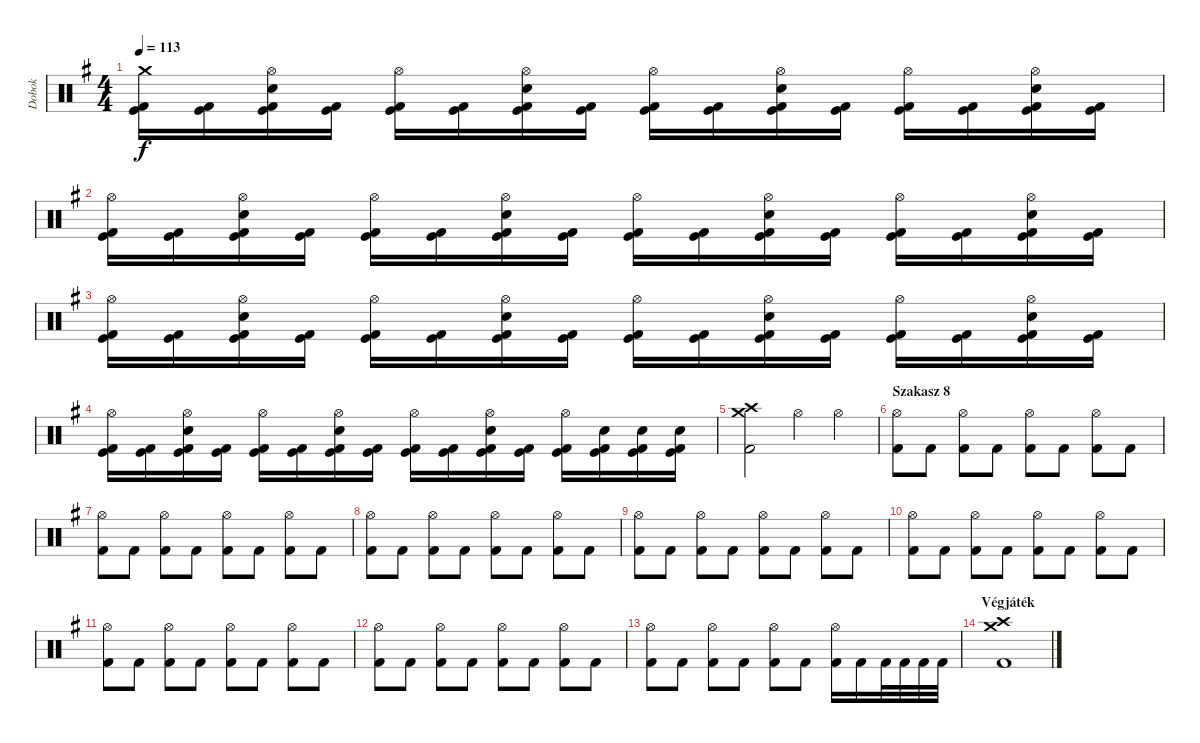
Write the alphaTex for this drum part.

\track ("Dobok" "Dobok") {instrument percussion}
\staff {score}
\articulation defaults
\ts (4 4)
\tempo 113
\clef neutral
\ks g
("Crash medium (hit)" "Kick (hit) 2" "Kick (hit)").16{dy f} ("Kick (hit) 2" "Kick (hit)").16 ("Hi-Hat (open)" "Snare (hit) 2" "Kick (hit) 2" "Kick (hit)").16 ("Kick (hit) 2" "Kick (hit)").16 ("Hi-Hat (open)" "Kick (hit) 2" "Kick (hit)").16 ("Kick (hit) 2" "Kick (hit)").16 ("Hi-Hat (open)" "Snare (hit) 2" "Kick (hit) 2" "Kick (hit)").16 ("Kick (hit) 2" "Kick (hit)").16 ("Hi-Hat (open)" "Kick (hit) 2" "Kick (hit)").16 ("Kick (hit) 2" "Kick (hit)").16 ("Hi-Hat (open)" "Snare (hit) 2" "Kick (hit) 2" "Kick (hit)").16 ("Kick (hit) 2" "Kick (hit)").16 ("Hi-Hat (open)" "Kick (hit) 2" "Kick (hit)").16 ("Kick (hit) 2" "Kick (hit)").16 ("Hi-Hat (open)" "Snare (hit) 2" "Kick (hit) 2" "Kick (hit)").16 ("Kick (hit) 2" "Kick (hit)").16 |
("Hi-Hat (open)" "Kick (hit) 2" "Kick (hit)").16 ("Kick (hit) 2" "Kick (hit)").16 ("Hi-Hat (open)" "Snare (hit) 2" "Kick (hit) 2" "Kick (hit)").16 ("Kick (hit) 2" "Kick (hit)").16 ("Hi-Hat (open)" "Kick (hit) 2" "Kick (hit)").16 ("Kick (hit) 2" "Kick (hit)").16 ("Hi-Hat (open)" "Snare (hit) 2" "Kick (hit) 2" "Kick (hit)").16 ("Kick (hit) 2" "Kick (hit)").16 ("Hi-Hat (open)" "Kick (hit) 2" "Kick (hit)").16 ("Kick (hit) 2" "Kick (hit)").16 ("Hi-Hat (open)" "Snare (hit) 2" "Kick (hit) 2" "Kick (hit)").16 ("Kick (hit) 2" "Kick (hit)").16 ("Hi-Hat (open)" "Kick (hit) 2" "Kick (hit)").16 ("Kick (hit) 2" "Kick (hit)").16 ("Hi-Hat (open)" "Snare (hit) 2" "Kick (hit) 2" "Kick (hit)").16 ("Kick (hit) 2" "Kick (hit)").16 |
("Hi-Hat (open)" "Kick (hit) 2" "Kick (hit)").16 ("Kick (hit) 2" "Kick (hit)").16 ("Hi-Hat (open)" "Snare (hit) 2" "Kick (hit) 2" "Kick (hit)").16 ("Kick (hit) 2" "Kick (hit)").16 ("Hi-Hat (open)" "Kick (hit) 2" "Kick (hit)").16 ("Kick (hit) 2" "Kick (hit)").16 ("Hi-Hat (open)" "Snare (hit) 2" "Kick (hit) 2" "Kick (hit)").16 ("Kick (hit) 2" "Kick (hit)").16 ("Hi-Hat (open)" "Kick (hit) 2" "Kick (hit)").16 ("Kick (hit) 2" "Kick (hit)").16 ("Hi-Hat (open)" "Snare (hit) 2" "Kick (hit) 2" "Kick (hit)").16 ("Kick (hit) 2" "Kick (hit)").16 ("Hi-Hat (open)" "Kick (hit) 2" "Kick (hit)").16 ("Kick (hit) 2" "Kick (hit)").16 ("Hi-Hat (open)" "Snare (hit) 2" "Kick (hit) 2" "Kick (hit)").16 ("Kick (hit) 2" "Kick (hit)").16 |
("Hi-Hat (open)" "Kick (hit) 2" "Kick (hit)").16 ("Kick (hit) 2" "Kick (hit)").16 ("Hi-Hat (open)" "Snare (hit) 2" "Kick (hit) 2" "Kick (hit)").16 ("Kick (hit) 2" "Kick (hit)").16 ("Hi-Hat (open)" "Kick (hit) 2" "Kick (hit)").16 ("Kick (hit) 2" "Kick (hit)").16 ("Hi-Hat (open)" "Snare (hit) 2" "Kick (hit) 2" "Kick (hit)").16 ("Kick (hit) 2" "Kick (hit)").16 ("Hi-Hat (open)" "Kick (hit) 2" "Kick (hit)").16 ("Kick (hit) 2" "Kick (hit)").16 ("Hi-Hat (open)" "Snare (hit) 2" "Kick (hit) 2" "Kick (hit)").16 ("Kick (hit) 2" "Kick (hit)").16 ("Hi-Hat (open)" "Kick (hit) 2" "Kick (hit)").16 ("Snare (hit) 2" "Kick (hit) 2" "Kick (hit)").16 ("Snare (hit) 2" "Kick (hit) 2" "Kick (hit)").16 ("Snare (hit) 2" "Kick (hit) 2" "Kick (hit)").16 |
("Crash medium (hit)" "Crash high (hit)" "Kick (hit) 2").2 "Hi-Hat (open)".4 "Hi-Hat (open)".4 |
\section ("" "Szakasz 8")
("Hi-Hat (open)" "Kick (hit) 2").8 "Kick (hit) 2".8 ("Hi-Hat (open)" "Kick (hit) 2").8 "Kick (hit) 2".8 ("Hi-Hat (open)" "Kick (hit) 2").8 "Kick (hit) 2".8 ("Hi-Hat (open)" "Kick (hit) 2").8 "Kick (hit) 2".8 |
("Hi-Hat (open)" "Kick (hit) 2").8 "Kick (hit) 2".8 ("Hi-Hat (open)" "Kick (hit) 2").8 "Kick (hit) 2".8 ("Hi-Hat (open)" "Kick (hit) 2").8 "Kick (hit) 2".8 ("Hi-Hat (open)" "Kick (hit) 2").8 "Kick (hit) 2".8 |
("Hi-Hat (open)" "Kick (hit) 2").8 "Kick (hit) 2".8 ("Hi-Hat (open)" "Kick (hit) 2").8 "Kick (hit) 2".8 ("Hi-Hat (open)" "Kick (hit) 2").8 "Kick (hit) 2".8 ("Hi-Hat (open)" "Kick (hit) 2").8 "Kick (hit) 2".8 |
("Hi-Hat (open)" "Kick (hit) 2").8 "Kick (hit) 2".8 ("Hi-Hat (open)" "Kick (hit) 2").8 "Kick (hit) 2".8 ("Hi-Hat (open)" "Kick (hit) 2").8 "Kick (hit) 2".8 ("Hi-Hat (open)" "Kick (hit) 2").8 "Kick (hit) 2".8 |
("Hi-Hat (open)" "Kick (hit) 2").8 "Kick (hit) 2".8 ("Hi-Hat (open)" "Kick (hit) 2").8 "Kick (hit) 2".8 ("Hi-Hat (open)" "Kick (hit) 2").8 "Kick (hit) 2".8 ("Hi-Hat (open)" "Kick (hit) 2").8 "Kick (hit) 2".8 |
("Hi-Hat (open)" "Kick (hit) 2").8 "Kick (hit) 2".8 ("Hi-Hat (open)" "Kick (hit) 2").8 "Kick (hit) 2".8 ("Hi-Hat (open)" "Kick (hit) 2").8 "Kick (hit) 2".8 ("Hi-Hat (open)" "Kick (hit) 2").8 "Kick (hit) 2".8 |
("Hi-Hat (open)" "Kick (hit) 2").8 "Kick (hit) 2".8 ("Hi-Hat (open)" "Kick (hit) 2").8 "Kick (hit) 2".8 ("Hi-Hat (open)" "Kick (hit) 2").8 "Kick (hit) 2".8 ("Hi-Hat (open)" "Kick (hit) 2").8 "Kick (hit) 2".8 |
("Hi-Hat (open)" "Kick (hit) 2").8 "Kick (hit) 2".8 ("Hi-Hat (open)" "Kick (hit) 2").8 "Kick (hit) 2".8 ("Hi-Hat (open)" "Kick (hit) 2").8 "Kick (hit) 2".8 ("Hi-Hat (open)" "Kick (hit) 2").16 "Kick (hit) 2".16 "Kick (hit) 2".32 "Kick (hit) 2".32 "Kick (hit) 2".32 "Kick (hit) 2".32 |
\section ("" "Végjáték")
("Crash medium (hit)" "Crash high (hit)" "Kick (hit) 2").1
